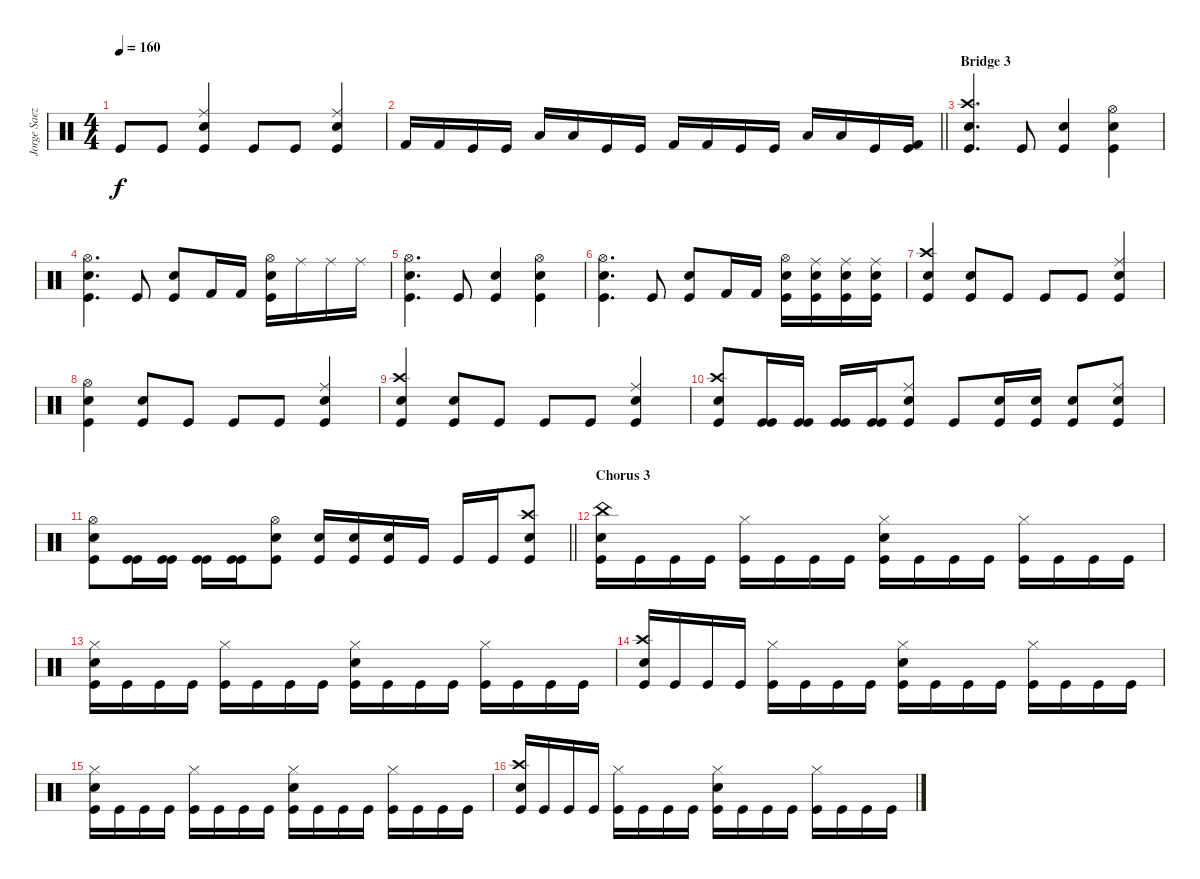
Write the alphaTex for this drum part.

\track ("Jorge Saez" "Jorge Saez") {instrument percussion}
\staff {score}
\articulation defaults
\ts (4 4)
\tempo 160
\clef neutral
\ks c "Kick (hit)".8{dy f} "Kick (hit)".8
("Ride (middle)" "Snare (hit) 2" "Kick (hit)").4 "Kick (hit)".8 "Kick (hit)".8 ("Ride (middle)" "Snare (hit) 2" "Kick (hit)").4 |
\barLineRight lightlight "Kick (hit) 2".16 "Kick (hit) 2".16 "Kick (hit)".16 "Kick (hit)".16 "Low Floor Tom (hit)".16 "Low Floor Tom (hit)".16 "Kick (hit)".16 "Kick (hit)".16 "Kick (hit) 2".16 "Kick (hit) 2".16 "Kick (hit)".16 "Kick (hit)".16 "Low Floor Tom (hit)".16 "Low Floor Tom (hit)".16 "Kick (hit)".16
("Kick (hit) 2" "Kick (hit)").16 |
\section ("" "Bridge 3")
("Crash high (hit)" "Electric Snare (hit)" "Kick (hit)").4{d} "Kick (hit)".8 ("Snare (hit) 2" "Kick (hit)").4 ("Hi-Hat (open)" "Electric Snare (hit)" "Kick (hit)").4 |
("Hi-Hat (open)" "Electric Snare (hit)" "Kick (hit)").4{d} "Kick (hit)".8 ("Snare (hit) 2" "Kick (hit)").8 "Kick (hit) 2".16 "Kick (hit) 2".16 ("Hi-Hat (open)" "Electric Snare (hit)" "Kick (hit)").16 "Ride (middle)".16 "Ride (middle)".16 "Ride (middle)".16 |
("Hi-Hat (open)" "Electric Snare (hit)" "Kick (hit)").4{d} "Kick (hit)".8 ("Snare (hit) 2" "Kick (hit)").4 ("Hi-Hat (open)" "Electric Snare (hit)" "Kick (hit)").4 |
("Hi-Hat (open)" "Electric Snare (hit)" "Kick (hit)").4{d} "Kick (hit)".8 ("Snare (hit) 2" "Kick (hit)").8 "Kick (hit) 2".16 "Kick (hit) 2".16 ("Hi-Hat (open)" "Electric Snare (hit)" "Kick (hit)").16 ("Ride (middle)" "Electric Snare (hit)" "Kick (hit)").16 ("Ride (middle)" "Electric Snare (hit)" "Kick (hit)").16 ("Ride (middle)" "Electric Snare (hit)" "Kick (hit)").16 |
("Crash high (hit)" "Electric Snare (hit)" "Kick (hit)").4 ("Electric Snare (hit)" "Kick (hit)").8 "Kick (hit)".8 "Kick (hit)".8 "Kick (hit)".8 ("Ride (middle)" "Electric Snare (hit)" "Kick (hit)").4 |
("Hi-Hat (open)" "Electric Snare (hit)" "Kick (hit)").4 ("Electric Snare (hit)" "Kick (hit)").8 "Kick (hit)".8 "Kick (hit)".8 "Kick (hit)".8 ("Ride (middle)" "Electric Snare (hit)" "Kick (hit)").4 |
("Crash high (hit)" "Electric Snare (hit)" "Kick (hit)").4 ("Electric Snare (hit)" "Kick (hit)").8 "Kick (hit)".8 "Kick (hit)".8 "Kick (hit)".8 ("Ride (middle)" "Electric Snare (hit)" "Kick (hit)").4 |
("Crash high (hit)" "Electric Snare (hit)" "Kick (hit)").8 ("Kick (hit)" "Kick (hit)").16 ("Kick (hit)" "Kick (hit)").16 ("Kick (hit)" "Kick (hit)").16 ("Kick (hit)" "Kick (hit)").16 ("Ride (middle)" "Electric Snare (hit)" "Kick (hit)").8 "Kick (hit)".8 ("Electric Snare (hit)" "Kick (hit)").16 ("Electric Snare (hit)" "Kick (hit)").16 ("Electric Snare (hit)" "Kick (hit)").8 ("Ride (middle)" "Electric Snare (hit)" "Kick (hit)").8 |
\barLineRight lightlight
("Hi-Hat (open)" "Electric Snare (hit)" "Kick (hit)").8 ("Kick (hit)" "Kick (hit)").16 ("Kick (hit)" "Kick (hit)").16 ("Kick (hit)" "Kick (hit)").16 ("Kick (hit)" "Kick (hit)").16 ("Hi-Hat (open)" "Electric Snare (hit)" "Kick (hit)").8 ("Snare (hit) 2" "Kick (hit)").16 ("Snare (hit) 2" "Kick (hit)").16 ("Snare (hit) 2" "Kick (hit)").16 "Kick (hit)".16 "Kick (hit)".16 "Kick (hit)".16 ("Crash high (hit)" "Electric Snare (hit)" "Kick (hit)").8 |
\section ("" "Chorus 3")
("China (hit)" "Electric Snare (hit)" "Kick (hit)").16 "Kick (hit)".16 "Kick (hit)".16 "Kick (hit)".16 ("Hi-Hat (closed)" "Kick (hit)").16 "Kick (hit)".16 "Kick (hit)".16 "Kick (hit)".16 ("Hi-Hat (closed)" "Snare (hit) 2" "Kick (hit)").16 "Kick (hit)".16 "Kick (hit)".16 "Kick (hit)".16 ("Hi-Hat (closed)" "Kick (hit)").16 "Kick (hit)".16 "Kick (hit)".16 "Kick (hit)".16 |
("Hi-Hat (closed)" "Snare (hit) 2" "Kick (hit)").16 "Kick (hit)".16 "Kick (hit)".16 "Kick (hit)".16 ("Hi-Hat (closed)" "Kick (hit)").16 "Kick (hit)".16 "Kick (hit)".16 "Kick (hit)".16 ("Hi-Hat (closed)" "Snare (hit) 2" "Kick (hit)").16 "Kick (hit)".16 "Kick (hit)".16 "Kick (hit)".16 ("Hi-Hat (closed)" "Kick (hit)").16 "Kick (hit)".16 "Kick (hit)".16 "Kick (hit)".16 |
("Crash high (hit)" "Electric Snare (hit)" "Kick (hit)").16 "Kick (hit)".16 "Kick (hit)".16 "Kick (hit)".16 ("Hi-Hat (closed)" "Kick (hit)").16 "Kick (hit)".16 "Kick (hit)".16 "Kick (hit)".16 ("Hi-Hat (closed)" "Snare (hit) 2" "Kick (hit)").16 "Kick (hit)".16 "Kick (hit)".16 "Kick (hit)".16 ("Hi-Hat (closed)" "Kick (hit)").16 "Kick (hit)".16 "Kick (hit)".16 "Kick (hit)".16 |
("Hi-Hat (closed)" "Snare (hit) 2" "Kick (hit)").16 "Kick (hit)".16 "Kick (hit)".16 "Kick (hit)".16 ("Hi-Hat (closed)" "Kick (hit)").16 "Kick (hit)".16 "Kick (hit)".16 "Kick (hit)".16 ("Hi-Hat (closed)" "Snare (hit) 2" "Kick (hit)").16 "Kick (hit)".16 "Kick (hit)".16 "Kick (hit)".16 ("Hi-Hat (closed)" "Kick (hit)").16 "Kick (hit)".16 "Kick (hit)".16 "Kick (hit)".16 |
("Crash high (hit)" "Electric Snare (hit)" "Kick (hit)").16 "Kick (hit)".16 "Kick (hit)".16 "Kick (hit)".16 ("Hi-Hat (closed)" "Kick (hit)").16 "Kick (hit)".16 "Kick (hit)".16 "Kick (hit)".16 ("Hi-Hat (closed)" "Snare (hit) 2" "Kick (hit)").16 "Kick (hit)".16 "Kick (hit)".16 "Kick (hit)".16 ("Hi-Hat (closed)" "Kick (hit)").16 "Kick (hit)".16 "Kick (hit)".16 "Kick (hit)".16
